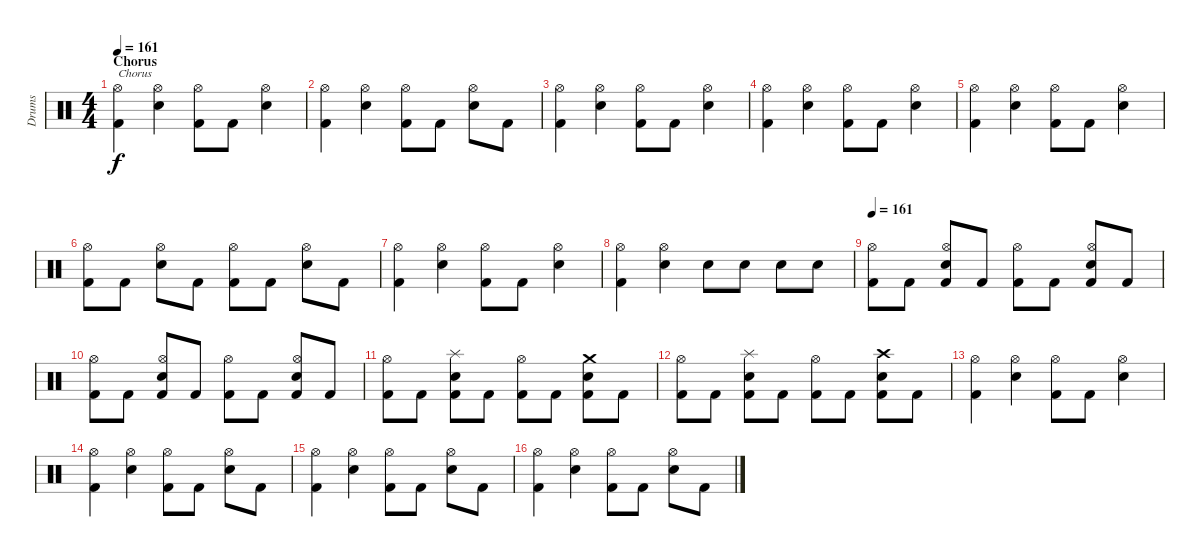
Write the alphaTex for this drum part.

\track ("Drums" "Drums") {instrument percussion}
\staff {score}
\articulation defaults
\ts (4 4)
\section ("" "Chorus")
\tempo 161
\clef neutral
\ks c
("Kick (hit) 2" "Hi-Hat (open)").4{txt "Chorus" dy f} ("Electric Snare (hit)" "Hi-Hat (open)").4 ("Kick (hit) 2" "Hi-Hat (open)").8 "Kick (hit) 2".8 ("Electric Snare (hit)" "Hi-Hat (open)").4 |
("Kick (hit) 2" "Hi-Hat (open)").4 ("Electric Snare (hit)" "Hi-Hat (open)").4 ("Kick (hit) 2" "Hi-Hat (open)").8 "Kick (hit) 2".8 ("Electric Snare (hit)" "Hi-Hat (open)").8 "Kick (hit) 2".8 |
("Kick (hit) 2" "Hi-Hat (open)").4 ("Electric Snare (hit)" "Hi-Hat (open)").4 ("Kick (hit) 2" "Hi-Hat (open)").8 "Kick (hit) 2".8 ("Electric Snare (hit)" "Hi-Hat (open)").4 |
("Kick (hit) 2" "Hi-Hat (open)").4 ("Electric Snare (hit)" "Hi-Hat (open)").4 ("Kick (hit) 2" "Hi-Hat (open)").8 "Kick (hit) 2".8 ("Electric Snare (hit)" "Hi-Hat (open)").4 |
("Kick (hit) 2" "Hi-Hat (open)").4 ("Electric Snare (hit)" "Hi-Hat (open)").4 ("Kick (hit) 2" "Hi-Hat (open)").8 "Kick (hit) 2".8 ("Electric Snare (hit)" "Hi-Hat (open)").4 |
("Kick (hit) 2" "Hi-Hat (open)").8 "Kick (hit) 2".8 ("Electric Snare (hit)" "Hi-Hat (open)").8 "Kick (hit) 2".8 ("Kick (hit) 2" "Hi-Hat (open)").8 "Kick (hit) 2".8 ("Electric Snare (hit)" "Hi-Hat (open)").8 "Kick (hit) 2".8 |
("Kick (hit) 2" "Hi-Hat (open)").4 ("Electric Snare (hit)" "Hi-Hat (open)").4 ("Kick (hit) 2" "Hi-Hat (open)").8 "Kick (hit) 2".8 ("Electric Snare (hit)" "Hi-Hat (open)").4 |
("Kick (hit) 2" "Hi-Hat (open)").4 ("Electric Snare (hit)" "Hi-Hat (open)").4 "Electric Snare (hit)".8 "Electric Snare (hit)".8 "Electric Snare (hit)".8 "Electric Snare (hit)".8 |
\tempo 161
("Kick (hit) 2" "Hi-Hat (open)").8 "Kick (hit) 2".8 ("Kick (hit) 2" "Electric Snare (hit)" "Hi-Hat (open)").8 "Kick (hit) 2".8 ("Kick (hit) 2" "Hi-Hat (open)").8 "Kick (hit) 2".8 ("Kick (hit) 2" "Electric Snare (hit)" "Hi-Hat (open)").8 "Kick (hit) 2".8 |
("Kick (hit) 2" "Hi-Hat (open)").8 "Kick (hit) 2".8 ("Kick (hit) 2" "Electric Snare (hit)" "Hi-Hat (open)").8 "Kick (hit) 2".8 ("Kick (hit) 2" "Hi-Hat (open)").8 "Kick (hit) 2".8 ("Kick (hit) 2" "Electric Snare (hit)" "Hi-Hat (open)").8 "Kick (hit) 2".8 |
("Kick (hit) 2" "Hi-Hat (open)").8 "Kick (hit) 2".8 ("Kick (hit) 2" "Electric Snare (hit)" "Splash (hit)").8 "Kick (hit) 2".8 ("Kick (hit) 2" "Hi-Hat (open)").8 "Kick (hit) 2".8 ("Kick (hit) 2" "Electric Snare (hit)" "Crash medium (hit)").8 "Kick (hit) 2".8 |
("Kick (hit) 2" "Hi-Hat (open)").8 "Kick (hit) 2".8 ("Kick (hit) 2" "Electric Snare (hit)" "Splash (hit)").8 "Kick (hit) 2".8 ("Kick (hit) 2" "Hi-Hat (open)").8 "Kick (hit) 2".8 ("Kick (hit) 2" "Electric Snare (hit)" "Crash high (hit)").8 "Kick (hit) 2".8 |
("Kick (hit) 2" "Hi-Hat (open)").4 ("Electric Snare (hit)" "Hi-Hat (open)").4 ("Kick (hit) 2" "Hi-Hat (open)").8 "Kick (hit) 2".8 ("Electric Snare (hit)" "Hi-Hat (open)").4 |
("Kick (hit) 2" "Hi-Hat (open)").4 ("Electric Snare (hit)" "Hi-Hat (open)").4 ("Kick (hit) 2" "Hi-Hat (open)").8 "Kick (hit) 2".8 ("Electric Snare (hit)" "Hi-Hat (open)").8 "Kick (hit) 2".8 |
("Kick (hit) 2" "Hi-Hat (open)").4 ("Electric Snare (hit)" "Hi-Hat (open)").4 ("Kick (hit) 2" "Hi-Hat (open)").8 "Kick (hit) 2".8 ("Electric Snare (hit)" "Hi-Hat (open)").8 "Kick (hit) 2".8 |
("Kick (hit) 2" "Hi-Hat (open)").4 ("Electric Snare (hit)" "Hi-Hat (open)").4 ("Kick (hit) 2" "Hi-Hat (open)").8 "Kick (hit) 2".8 ("Electric Snare (hit)" "Hi-Hat (open)").8 "Kick (hit) 2".8
